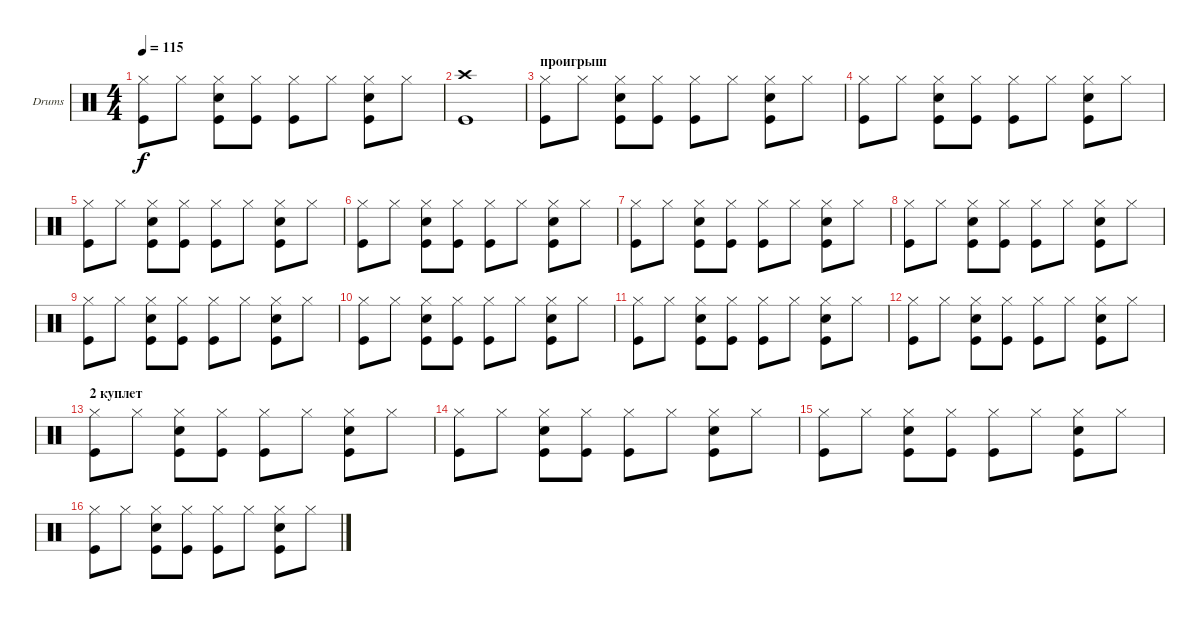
\defaultSystemsLayout 4
\bracketExtendMode groupsimilarinstruments
\firstSystemTrackNameOrientation horizontal
\otherSystemsTrackNameOrientation horizontal
\track ("Drumkit" "Drums") {instrument percussion}
\staff {score}
\articulation defaults
\ts (4 4)
\tempo 115
\clef neutral
\ks c
("Hi-Hat (closed)" "Kick (hit)").8{dy f} "Hi-Hat (closed)".8 ("Hi-Hat (closed)" "Snare (hit) 2" "Kick (hit)").8 ("Hi-Hat (closed)" "Kick (hit)").8 ("Hi-Hat (closed)" "Kick (hit)").8 "Hi-Hat (closed)".8 ("Hi-Hat (closed)" "Kick (hit)" "Snare (hit) 2").8 "Hi-Hat (closed)".8 |
("Crash high (hit)" "Kick (hit)").1 |
\section ("" "проигрыш")
("Hi-Hat (closed)" "Kick (hit)").8 "Hi-Hat (closed)".8 ("Hi-Hat (closed)" "Snare (hit) 2" "Kick (hit)").8 ("Hi-Hat (closed)" "Kick (hit)").8 ("Hi-Hat (closed)" "Kick (hit)").8 "Hi-Hat (closed)".8 ("Hi-Hat (closed)" "Kick (hit)" "Snare (hit) 2").8 "Hi-Hat (closed)".8 |
("Hi-Hat (closed)" "Kick (hit)").8 "Hi-Hat (closed)".8 ("Hi-Hat (closed)" "Snare (hit) 2" "Kick (hit)").8 ("Hi-Hat (closed)" "Kick (hit)").8 ("Hi-Hat (closed)" "Kick (hit)").8 "Hi-Hat (closed)".8 ("Hi-Hat (closed)" "Kick (hit)" "Snare (hit) 2").8 "Hi-Hat (closed)".8 |
("Hi-Hat (closed)" "Kick (hit)").8 "Hi-Hat (closed)".8 ("Hi-Hat (closed)" "Snare (hit) 2" "Kick (hit)").8 ("Hi-Hat (closed)" "Kick (hit)").8 ("Hi-Hat (closed)" "Kick (hit)").8 "Hi-Hat (closed)".8 ("Hi-Hat (closed)" "Kick (hit)" "Snare (hit) 2").8 "Hi-Hat (closed)".8 |
("Hi-Hat (closed)" "Kick (hit)").8 "Hi-Hat (closed)".8 ("Hi-Hat (closed)" "Snare (hit) 2" "Kick (hit)").8 ("Hi-Hat (closed)" "Kick (hit)").8 ("Hi-Hat (closed)" "Kick (hit)").8 "Hi-Hat (closed)".8 ("Hi-Hat (closed)" "Kick (hit)" "Snare (hit) 2").8 "Hi-Hat (closed)".8 |
("Hi-Hat (closed)" "Kick (hit)").8 "Hi-Hat (closed)".8 ("Hi-Hat (closed)" "Snare (hit) 2" "Kick (hit)").8 ("Hi-Hat (closed)" "Kick (hit)").8 ("Hi-Hat (closed)" "Kick (hit)").8 "Hi-Hat (closed)".8 ("Hi-Hat (closed)" "Kick (hit)" "Snare (hit) 2").8 "Hi-Hat (closed)".8 |
("Hi-Hat (closed)" "Kick (hit)").8 "Hi-Hat (closed)".8 ("Hi-Hat (closed)" "Snare (hit) 2" "Kick (hit)").8 ("Hi-Hat (closed)" "Kick (hit)").8 ("Hi-Hat (closed)" "Kick (hit)").8 "Hi-Hat (closed)".8 ("Hi-Hat (closed)" "Kick (hit)" "Snare (hit) 2").8 "Hi-Hat (closed)".8 |
("Hi-Hat (closed)" "Kick (hit)").8 "Hi-Hat (closed)".8 ("Hi-Hat (closed)" "Snare (hit) 2" "Kick (hit)").8 ("Hi-Hat (closed)" "Kick (hit)").8 ("Hi-Hat (closed)" "Kick (hit)").8 "Hi-Hat (closed)".8 ("Hi-Hat (closed)" "Kick (hit)" "Snare (hit) 2").8 "Hi-Hat (closed)".8 |
("Hi-Hat (closed)" "Kick (hit)").8 "Hi-Hat (closed)".8 ("Hi-Hat (closed)" "Snare (hit) 2" "Kick (hit)").8 ("Hi-Hat (closed)" "Kick (hit)").8 ("Hi-Hat (closed)" "Kick (hit)").8 "Hi-Hat (closed)".8 ("Hi-Hat (closed)" "Kick (hit)" "Snare (hit) 2").8 "Hi-Hat (closed)".8 |
("Hi-Hat (closed)" "Kick (hit)").8 "Hi-Hat (closed)".8 ("Hi-Hat (closed)" "Snare (hit) 2" "Kick (hit)").8 ("Hi-Hat (closed)" "Kick (hit)").8 ("Hi-Hat (closed)" "Kick (hit)").8 "Hi-Hat (closed)".8 ("Hi-Hat (closed)" "Kick (hit)" "Snare (hit) 2").8 "Hi-Hat (closed)".8 |
("Hi-Hat (closed)" "Kick (hit)").8 "Hi-Hat (closed)".8 ("Hi-Hat (closed)" "Snare (hit) 2" "Kick (hit)").8 ("Hi-Hat (closed)" "Kick (hit)").8 ("Hi-Hat (closed)" "Kick (hit)").8 "Hi-Hat (closed)".8 ("Hi-Hat (closed)" "Kick (hit)" "Snare (hit) 2").8 "Hi-Hat (closed)".8 |
\section ("" "2 куплет")
("Hi-Hat (closed)" "Kick (hit)").8 "Hi-Hat (closed)".8 ("Hi-Hat (closed)" "Snare (hit) 2" "Kick (hit)").8 ("Hi-Hat (closed)" "Kick (hit)").8 ("Hi-Hat (closed)" "Kick (hit)").8 "Hi-Hat (closed)".8 ("Hi-Hat (closed)" "Kick (hit)" "Snare (hit) 2").8 "Hi-Hat (closed)".8 |
("Hi-Hat (closed)" "Kick (hit)").8 "Hi-Hat (closed)".8 ("Hi-Hat (closed)" "Snare (hit) 2" "Kick (hit)").8 ("Hi-Hat (closed)" "Kick (hit)").8 ("Hi-Hat (closed)" "Kick (hit)").8 "Hi-Hat (closed)".8 ("Hi-Hat (closed)" "Kick (hit)" "Snare (hit) 2").8 "Hi-Hat (closed)".8 |
("Hi-Hat (closed)" "Kick (hit)").8 "Hi-Hat (closed)".8 ("Hi-Hat (closed)" "Snare (hit) 2" "Kick (hit)").8 ("Hi-Hat (closed)" "Kick (hit)").8 ("Hi-Hat (closed)" "Kick (hit)").8 "Hi-Hat (closed)".8 ("Hi-Hat (closed)" "Kick (hit)" "Snare (hit) 2").8 "Hi-Hat (closed)".8 |
("Hi-Hat (closed)" "Kick (hit)").8 "Hi-Hat (closed)".8 ("Hi-Hat (closed)" "Snare (hit) 2" "Kick (hit)").8 ("Hi-Hat (closed)" "Kick (hit)").8 ("Hi-Hat (closed)" "Kick (hit)").8 "Hi-Hat (closed)".8 ("Hi-Hat (closed)" "Kick (hit)" "Snare (hit) 2").8 "Hi-Hat (closed)".8
